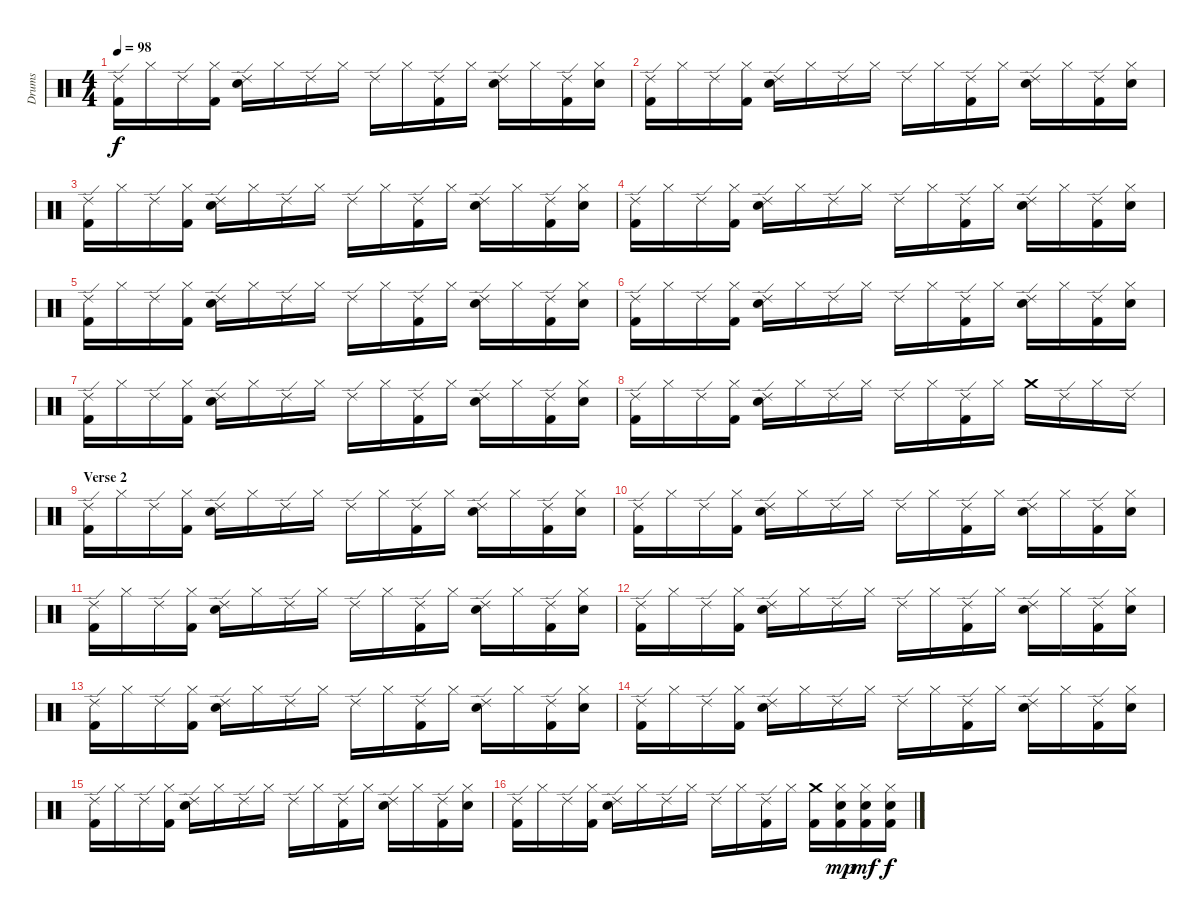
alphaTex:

\track ("Drums" "Drums") {instrument percussion}
\staff {score}
\articulation defaults
\ts (4 4)
\tempo 98
\clef neutral
\ks c
("Ride (edge) 2" "Kick (hit) 2").16{dy f} "Hi-Hat (closed)".16 "Ride (edge) 2".16 ("Hi-Hat (closed)" "Kick (hit) 2").16 ("Ride (edge) 2" "Electric Snare (hit)").16 "Hi-Hat (closed)".16 "Ride (edge) 2".16 "Hi-Hat (closed)".16 "Ride (edge) 2".16 "Hi-Hat (closed)".16 ("Ride (edge) 2" "Kick (hit) 2").16 "Hi-Hat (closed)".16 ("Ride (edge) 2" "Electric Snare (hit)").16 "Hi-Hat (closed)".16 ("Ride (edge) 2" "Kick (hit) 2").16 ("Hi-Hat (closed)" "Electric Snare (hit)").16 |
("Ride (edge) 2" "Kick (hit) 2").16 "Hi-Hat (closed)".16 "Ride (edge) 2".16 ("Hi-Hat (closed)" "Kick (hit) 2").16 ("Ride (edge) 2" "Electric Snare (hit)").16 "Hi-Hat (closed)".16 "Ride (edge) 2".16 "Hi-Hat (closed)".16 "Ride (edge) 2".16 "Hi-Hat (closed)".16 ("Ride (edge) 2" "Kick (hit) 2").16 "Hi-Hat (closed)".16 ("Ride (edge) 2" "Electric Snare (hit)").16 "Hi-Hat (closed)".16 ("Ride (edge) 2" "Kick (hit) 2").16 ("Hi-Hat (closed)" "Electric Snare (hit)").16 |
("Ride (edge) 2" "Kick (hit) 2").16 "Hi-Hat (closed)".16 "Ride (edge) 2".16 ("Hi-Hat (closed)" "Kick (hit) 2").16 ("Ride (edge) 2" "Electric Snare (hit)").16 "Hi-Hat (closed)".16 "Ride (edge) 2".16 "Hi-Hat (closed)".16 "Ride (edge) 2".16 "Hi-Hat (closed)".16 ("Ride (edge) 2" "Kick (hit) 2").16 "Hi-Hat (closed)".16 ("Ride (edge) 2" "Electric Snare (hit)").16 "Hi-Hat (closed)".16 ("Ride (edge) 2" "Kick (hit) 2").16 ("Hi-Hat (closed)" "Electric Snare (hit)").16 |
("Ride (edge) 2" "Kick (hit) 2").16 "Hi-Hat (closed)".16 "Ride (edge) 2".16 ("Hi-Hat (closed)" "Kick (hit) 2").16 ("Ride (edge) 2" "Electric Snare (hit)").16 "Hi-Hat (closed)".16 "Ride (edge) 2".16 "Hi-Hat (closed)".16 "Ride (edge) 2".16 "Hi-Hat (closed)".16 ("Ride (edge) 2" "Kick (hit) 2").16 "Hi-Hat (closed)".16 ("Ride (edge) 2" "Electric Snare (hit)").16 "Hi-Hat (closed)".16 ("Ride (edge) 2" "Kick (hit) 2").16 ("Hi-Hat (closed)" "Electric Snare (hit)").16 |
("Ride (edge) 2" "Kick (hit) 2").16 "Hi-Hat (closed)".16 "Ride (edge) 2".16 ("Hi-Hat (closed)" "Kick (hit) 2").16 ("Ride (edge) 2" "Electric Snare (hit)").16 "Hi-Hat (closed)".16 "Ride (edge) 2".16 "Hi-Hat (closed)".16 "Ride (edge) 2".16 "Hi-Hat (closed)".16 ("Ride (edge) 2" "Kick (hit) 2").16 "Hi-Hat (closed)".16 ("Ride (edge) 2" "Electric Snare (hit)").16 "Hi-Hat (closed)".16 ("Ride (edge) 2" "Kick (hit) 2").16 ("Hi-Hat (closed)" "Electric Snare (hit)").16 |
("Ride (edge) 2" "Kick (hit) 2").16 "Hi-Hat (closed)".16 "Ride (edge) 2".16 ("Hi-Hat (closed)" "Kick (hit) 2").16 ("Ride (edge) 2" "Electric Snare (hit)").16 "Hi-Hat (closed)".16 "Ride (edge) 2".16 "Hi-Hat (closed)".16 "Ride (edge) 2".16 "Hi-Hat (closed)".16 ("Ride (edge) 2" "Kick (hit) 2").16 "Hi-Hat (closed)".16 ("Ride (edge) 2" "Electric Snare (hit)").16 "Hi-Hat (closed)".16 ("Ride (edge) 2" "Kick (hit) 2").16 ("Hi-Hat (closed)" "Electric Snare (hit)").16 |
("Ride (edge) 2" "Kick (hit) 2").16 "Hi-Hat (closed)".16 "Ride (edge) 2".16 ("Hi-Hat (closed)" "Kick (hit) 2").16 ("Ride (edge) 2" "Electric Snare (hit)").16 "Hi-Hat (closed)".16 "Ride (edge) 2".16 "Hi-Hat (closed)".16 "Ride (edge) 2".16 "Hi-Hat (closed)".16 ("Ride (edge) 2" "Kick (hit) 2").16 "Hi-Hat (closed)".16 ("Ride (edge) 2" "Electric Snare (hit)").16 "Hi-Hat (closed)".16 ("Ride (edge) 2" "Kick (hit) 2").16 ("Hi-Hat (closed)" "Electric Snare (hit)").16 |
("Ride (edge) 2" "Kick (hit) 2").16 "Hi-Hat (closed)".16 "Ride (edge) 2".16 ("Hi-Hat (closed)" "Kick (hit) 2").16 ("Ride (edge) 2" "Electric Snare (hit)").16 "Hi-Hat (closed)".16 "Ride (edge) 2".16 "Hi-Hat (closed)".16 "Ride (edge) 2".16 "Hi-Hat (closed)".16 ("Ride (edge) 2" "Kick (hit) 2").16 "Hi-Hat (closed)".16 "Crash medium (hit)".16 "Ride (edge) 2".16 "Hi-Hat (closed)".16 "Ride (edge) 2".16 |
\section ("" "Verse 2")
("Ride (edge) 2" "Kick (hit) 2").16 "Hi-Hat (closed)".16 "Ride (edge) 2".16 ("Hi-Hat (closed)" "Kick (hit) 2").16 ("Ride (edge) 2" "Electric Snare (hit)").16 "Hi-Hat (closed)".16 "Ride (edge) 2".16 "Hi-Hat (closed)".16 "Ride (edge) 2".16 "Hi-Hat (closed)".16 ("Ride (edge) 2" "Kick (hit) 2").16 "Hi-Hat (closed)".16 ("Ride (edge) 2" "Electric Snare (hit)").16 "Hi-Hat (closed)".16 ("Ride (edge) 2" "Kick (hit) 2").16 ("Hi-Hat (closed)" "Electric Snare (hit)").16 |
("Ride (edge) 2" "Kick (hit) 2").16 "Hi-Hat (closed)".16 "Ride (edge) 2".16 ("Hi-Hat (closed)" "Kick (hit) 2").16 ("Ride (edge) 2" "Electric Snare (hit)").16 "Hi-Hat (closed)".16 "Ride (edge) 2".16 "Hi-Hat (closed)".16 "Ride (edge) 2".16 "Hi-Hat (closed)".16 ("Ride (edge) 2" "Kick (hit) 2").16 "Hi-Hat (closed)".16 ("Ride (edge) 2" "Electric Snare (hit)").16 "Hi-Hat (closed)".16 ("Ride (edge) 2" "Kick (hit) 2").16 ("Hi-Hat (closed)" "Electric Snare (hit)").16 |
("Ride (edge) 2" "Kick (hit) 2").16 "Hi-Hat (closed)".16 "Ride (edge) 2".16 ("Hi-Hat (closed)" "Kick (hit) 2").16 ("Ride (edge) 2" "Electric Snare (hit)").16 "Hi-Hat (closed)".16 "Ride (edge) 2".16 "Hi-Hat (closed)".16 "Ride (edge) 2".16 "Hi-Hat (closed)".16 ("Ride (edge) 2" "Kick (hit) 2").16 "Hi-Hat (closed)".16 ("Ride (edge) 2" "Electric Snare (hit)").16 "Hi-Hat (closed)".16 ("Ride (edge) 2" "Kick (hit) 2").16 ("Hi-Hat (closed)" "Electric Snare (hit)").16 |
("Ride (edge) 2" "Kick (hit) 2").16 "Hi-Hat (closed)".16 "Ride (edge) 2".16 ("Hi-Hat (closed)" "Kick (hit) 2").16 ("Ride (edge) 2" "Electric Snare (hit)").16 "Hi-Hat (closed)".16 "Ride (edge) 2".16 "Hi-Hat (closed)".16 "Ride (edge) 2".16 "Hi-Hat (closed)".16 ("Ride (edge) 2" "Kick (hit) 2").16 "Hi-Hat (closed)".16 ("Ride (edge) 2" "Electric Snare (hit)").16 "Hi-Hat (closed)".16 ("Ride (edge) 2" "Kick (hit) 2").16 ("Hi-Hat (closed)" "Electric Snare (hit)").16 |
("Ride (edge) 2" "Kick (hit) 2").16 "Hi-Hat (closed)".16 "Ride (edge) 2".16 ("Hi-Hat (closed)" "Kick (hit) 2").16 ("Ride (edge) 2" "Electric Snare (hit)").16 "Hi-Hat (closed)".16 "Ride (edge) 2".16 "Hi-Hat (closed)".16 "Ride (edge) 2".16 "Hi-Hat (closed)".16 ("Ride (edge) 2" "Kick (hit) 2").16 "Hi-Hat (closed)".16 ("Ride (edge) 2" "Electric Snare (hit)").16 "Hi-Hat (closed)".16 ("Ride (edge) 2" "Kick (hit) 2").16 ("Hi-Hat (closed)" "Electric Snare (hit)").16 |
("Ride (edge) 2" "Kick (hit) 2").16 "Hi-Hat (closed)".16 "Ride (edge) 2".16 ("Hi-Hat (closed)" "Kick (hit) 2").16 ("Ride (edge) 2" "Electric Snare (hit)").16 "Hi-Hat (closed)".16 "Ride (edge) 2".16 "Hi-Hat (closed)".16 "Ride (edge) 2".16 "Hi-Hat (closed)".16 ("Ride (edge) 2" "Kick (hit) 2").16 "Hi-Hat (closed)".16 ("Ride (edge) 2" "Electric Snare (hit)").16 "Hi-Hat (closed)".16 ("Ride (edge) 2" "Kick (hit) 2").16 ("Hi-Hat (closed)" "Electric Snare (hit)").16 |
("Ride (edge) 2" "Kick (hit) 2").16 "Hi-Hat (closed)".16 "Ride (edge) 2".16 ("Hi-Hat (closed)" "Kick (hit) 2").16 ("Ride (edge) 2" "Electric Snare (hit)").16 "Hi-Hat (closed)".16 "Ride (edge) 2".16 "Hi-Hat (closed)".16 "Ride (edge) 2".16 "Hi-Hat (closed)".16 ("Ride (edge) 2" "Kick (hit) 2").16 "Hi-Hat (closed)".16 ("Ride (edge) 2" "Electric Snare (hit)").16 "Hi-Hat (closed)".16 ("Ride (edge) 2" "Kick (hit) 2").16 ("Hi-Hat (closed)" "Electric Snare (hit)").16 |
("Ride (edge) 2" "Kick (hit) 2").16 "Hi-Hat (closed)".16 "Ride (edge) 2".16 ("Hi-Hat (closed)" "Kick (hit) 2").16 ("Ride (edge) 2" "Electric Snare (hit)").16 "Hi-Hat (closed)".16 "Ride (edge) 2".16 "Hi-Hat (closed)".16 "Ride (edge) 2".16 "Hi-Hat (closed)".16 ("Ride (edge) 2" "Kick (hit) 2").16 "Hi-Hat (closed)".16 ("Crash medium (hit)" "Kick (hit) 2").16 ("Hi-Hat (closed)" "Electric Snare (hit)" "Kick (hit) 2").16{dy mp} ("Hi-Hat (closed)" "Electric Snare (hit)" "Kick (hit) 2").16{dy mf} ("Hi-Hat (closed)" "Electric Snare (hit)" "Kick (hit) 2").16{dy f}
